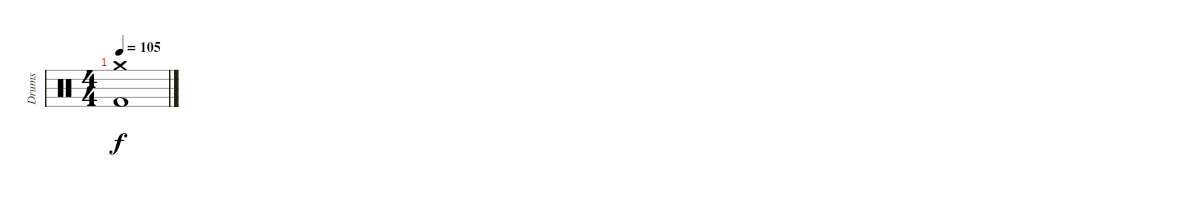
\track ("Drums" "Drums") {instrument percussion}
\staff {score}
\articulation defaults
\ts (4 4)
\tempo 105
\clef neutral
\ks c
("Kick (hit) 2" "Crash medium (hit)").1{dy f}
